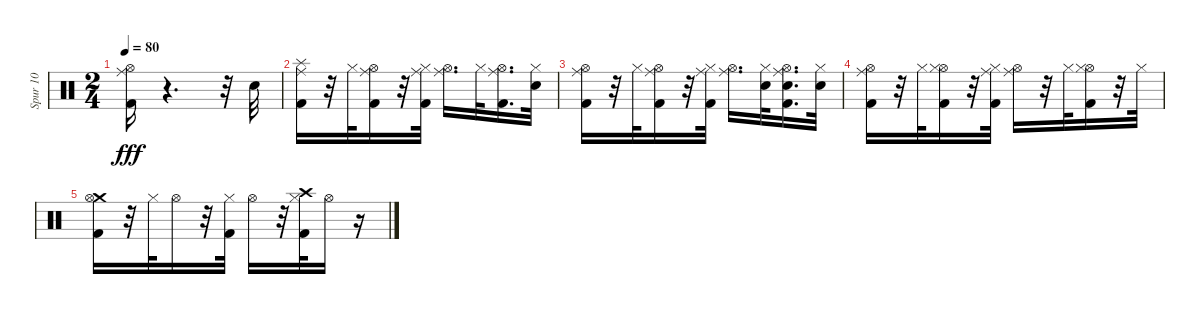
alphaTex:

\track ("Spur 10" "Spur 10") {instrument percussion}
\staff {score}
\articulation defaults
\ts (2 4)
\tempo 80
\clef neutral
\ks c
("Hi-Hat (open)" "Kick (hit) 2" "Ride (middle)").16{dy fff} r.4{d} r.32 "Snare (hit) 2".32 |
("Splash (hit)" "Kick (hit) 2" "Ride (middle)").16 r.32 "Hi-Hat (closed)".32 ("Hi-Hat (open)" "Kick (hit) 2" "Ride (middle)").16 r.32 ("Hi-Hat (closed)" "Kick (hit) 2" "Ride (middle)").32 ("Hi-Hat (open)" "Ride (middle)").16{d} "Hi-Hat (closed)".32 ("Hi-Hat (open)" "Kick (hit) 2" "Ride (middle)").16{d} ("Hi-Hat (closed)" "Snare (hit) 2").32 |
("Hi-Hat (open)" "Kick (hit) 2" "Ride (middle)").16 r.32 "Hi-Hat (closed)".32 ("Hi-Hat (open)" "Kick (hit) 2" "Ride (middle)").16 r.32 ("Hi-Hat (closed)" "Kick (hit) 2" "Ride (middle)").32 ("Hi-Hat (open)" "Ride (middle)").16{d} ("Hi-Hat (closed)" "Snare (hit) 2").32 ("Hi-Hat (open)" "Kick (hit) 2" "Snare (hit) 2" "Ride (middle)").16{d} ("Hi-Hat (closed)" "Snare (hit) 2").32 |
("Hi-Hat (open)" "Kick (hit) 2" "Ride (middle)").16 r.32 "Hi-Hat (closed)".32 ("Hi-Hat (open)" "Kick (hit) 2" "Hi-Hat (closed)").16 r.32 ("Hi-Hat (closed)" "Kick (hit) 2" "Ride (middle)").32 ("Hi-Hat (open)" "Ride (middle)").16 r.32 "Hi-Hat (closed)".32 ("Hi-Hat (open)" "Kick (hit) 2" "Hi-Hat (closed)").16 r.32 "Hi-Hat (closed)".32 |
("Crash medium (hit)" "Hi-Hat (open)" "Kick (hit) 2").16 r.32 "Hi-Hat (closed)".32 "Hi-Hat (open)".16 r.32 ("Hi-Hat (closed)" "Kick (hit) 2").32 "Hi-Hat (open)".16 r.32 ("Crash high (hit)" "Hi-Hat (closed)" "Kick (hit) 2").32 "Hi-Hat (open)".16 r.16
